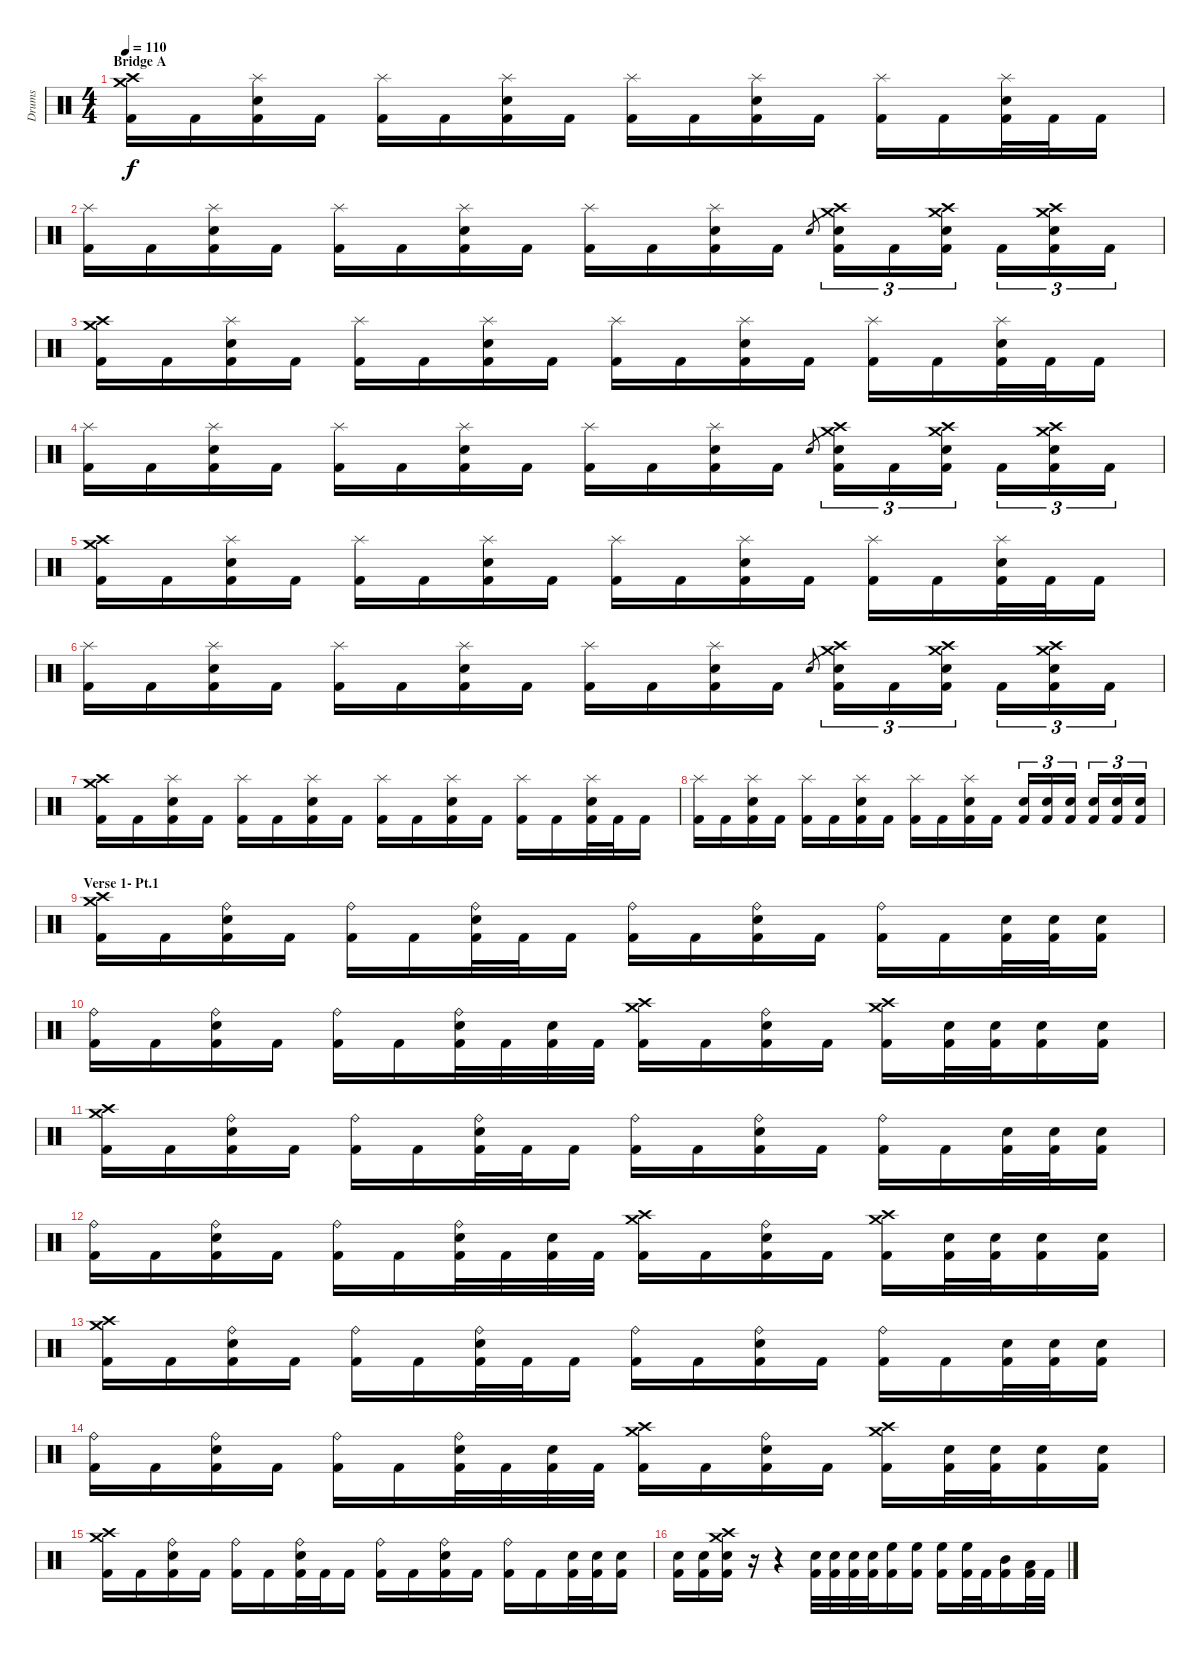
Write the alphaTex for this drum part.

\track ("Drums" "Drums") {instrument percussion}
\staff {score}
\articulation defaults
\ts (4 4)
\section ("" "Bridge A")
\tempo 110
\clef neutral
\ks c
("Crash medium (hit)" "Crash high (hit)" "Kick (hit) 2").16{dy f} "Kick (hit) 2".16 ("Splash (hit)" "Electric Snare (hit)" "Kick (hit) 2").16 "Kick (hit) 2".16 ("Splash (hit)" "Kick (hit) 2").16 "Kick (hit) 2".16 ("Splash (hit)" "Electric Snare (hit)" "Kick (hit) 2").16 "Kick (hit) 2".16 ("Splash (hit)" "Kick (hit) 2").16 "Kick (hit) 2".16 ("Splash (hit)" "Electric Snare (hit)" "Kick (hit) 2").16 "Kick (hit) 2".16 ("Splash (hit)" "Kick (hit) 2").16 "Kick (hit) 2".16 ("Splash (hit)" "Electric Snare (hit)" "Kick (hit) 2").32 "Kick (hit) 2".32 "Kick (hit) 2".16 |
("Splash (hit)" "Kick (hit) 2").16 "Kick (hit) 2".16 ("Splash (hit)" "Electric Snare (hit)" "Kick (hit) 2").16 "Kick (hit) 2".16 ("Splash (hit)" "Kick (hit) 2").16 "Kick (hit) 2".16 ("Splash (hit)" "Electric Snare (hit)" "Kick (hit) 2").16 "Kick (hit) 2".16 ("Splash (hit)" "Kick (hit) 2").16 "Kick (hit) 2".16 ("Splash (hit)" "Electric Snare (hit)" "Kick (hit) 2").16 "Kick (hit) 2".16 "Electric Snare (hit)".8{gr} ("Crash medium (hit)" "Crash high (hit)" "Electric Snare (hit)" "Kick (hit) 2").16{tu (3 2)} "Kick (hit) 2".16{tu (3 2)} ("Crash medium (hit)" "Crash high (hit)" "Electric Snare (hit)" "Kick (hit) 2").16{tu (3 2)} "Kick (hit) 2".16{tu (3 2)} ("Crash medium (hit)" "Crash high (hit)" "Electric Snare (hit)" "Kick (hit) 2").16{tu (3 2)} "Kick (hit) 2".16{tu (3 2)} |
("Crash medium (hit)" "Crash high (hit)" "Kick (hit) 2").16 "Kick (hit) 2".16 ("Splash (hit)" "Electric Snare (hit)" "Kick (hit) 2").16 "Kick (hit) 2".16 ("Splash (hit)" "Kick (hit) 2").16 "Kick (hit) 2".16 ("Splash (hit)" "Electric Snare (hit)" "Kick (hit) 2").16 "Kick (hit) 2".16 ("Splash (hit)" "Kick (hit) 2").16 "Kick (hit) 2".16 ("Splash (hit)" "Electric Snare (hit)" "Kick (hit) 2").16 "Kick (hit) 2".16 ("Splash (hit)" "Kick (hit) 2").16 "Kick (hit) 2".16 ("Splash (hit)" "Electric Snare (hit)" "Kick (hit) 2").32 "Kick (hit) 2".32 "Kick (hit) 2".16 |
("Splash (hit)" "Kick (hit) 2").16 "Kick (hit) 2".16 ("Splash (hit)" "Electric Snare (hit)" "Kick (hit) 2").16 "Kick (hit) 2".16 ("Splash (hit)" "Kick (hit) 2").16 "Kick (hit) 2".16 ("Splash (hit)" "Electric Snare (hit)" "Kick (hit) 2").16 "Kick (hit) 2".16 ("Splash (hit)" "Kick (hit) 2").16 "Kick (hit) 2".16 ("Splash (hit)" "Electric Snare (hit)" "Kick (hit) 2").16 "Kick (hit) 2".16 "Electric Snare (hit)".8{gr} ("Crash medium (hit)" "Crash high (hit)" "Electric Snare (hit)" "Kick (hit) 2").16{tu (3 2)} "Kick (hit) 2".16{tu (3 2)} ("Crash medium (hit)" "Crash high (hit)" "Electric Snare (hit)" "Kick (hit) 2").16{tu (3 2)} "Kick (hit) 2".16{tu (3 2)} ("Crash medium (hit)" "Crash high (hit)" "Electric Snare (hit)" "Kick (hit) 2").16{tu (3 2)} "Kick (hit) 2".16{tu (3 2)} |
("Crash medium (hit)" "Crash high (hit)" "Kick (hit) 2").16 "Kick (hit) 2".16 ("Splash (hit)" "Electric Snare (hit)" "Kick (hit) 2").16 "Kick (hit) 2".16 ("Splash (hit)" "Kick (hit) 2").16 "Kick (hit) 2".16 ("Splash (hit)" "Electric Snare (hit)" "Kick (hit) 2").16 "Kick (hit) 2".16 ("Splash (hit)" "Kick (hit) 2").16 "Kick (hit) 2".16 ("Splash (hit)" "Electric Snare (hit)" "Kick (hit) 2").16 "Kick (hit) 2".16 ("Splash (hit)" "Kick (hit) 2").16 "Kick (hit) 2".16 ("Splash (hit)" "Electric Snare (hit)" "Kick (hit) 2").32 "Kick (hit) 2".32 "Kick (hit) 2".16 |
("Splash (hit)" "Kick (hit) 2").16 "Kick (hit) 2".16 ("Splash (hit)" "Electric Snare (hit)" "Kick (hit) 2").16 "Kick (hit) 2".16 ("Splash (hit)" "Kick (hit) 2").16 "Kick (hit) 2".16 ("Splash (hit)" "Electric Snare (hit)" "Kick (hit) 2").16 "Kick (hit) 2".16 ("Splash (hit)" "Kick (hit) 2").16 "Kick (hit) 2".16 ("Splash (hit)" "Electric Snare (hit)" "Kick (hit) 2").16 "Kick (hit) 2".16 "Electric Snare (hit)".8{gr} ("Crash medium (hit)" "Crash high (hit)" "Electric Snare (hit)" "Kick (hit) 2").16{tu (3 2)} "Kick (hit) 2".16{tu (3 2)} ("Crash medium (hit)" "Crash high (hit)" "Electric Snare (hit)" "Kick (hit) 2").16{tu (3 2)} "Kick (hit) 2".16{tu (3 2)} ("Crash medium (hit)" "Crash high (hit)" "Electric Snare (hit)" "Kick (hit) 2").16{tu (3 2)} "Kick (hit) 2".16{tu (3 2)} |
("Crash medium (hit)" "Crash high (hit)" "Kick (hit) 2").16 "Kick (hit) 2".16 ("Splash (hit)" "Electric Snare (hit)" "Kick (hit) 2").16 "Kick (hit) 2".16 ("Splash (hit)" "Kick (hit) 2").16 "Kick (hit) 2".16 ("Splash (hit)" "Electric Snare (hit)" "Kick (hit) 2").16 "Kick (hit) 2".16 ("Splash (hit)" "Kick (hit) 2").16 "Kick (hit) 2".16 ("Splash (hit)" "Electric Snare (hit)" "Kick (hit) 2").16 "Kick (hit) 2".16 ("Splash (hit)" "Kick (hit) 2").16 "Kick (hit) 2".16 ("Splash (hit)" "Electric Snare (hit)" "Kick (hit) 2").32 "Kick (hit) 2".32 "Kick (hit) 2".16 |
("Splash (hit)" "Kick (hit) 2").16 "Kick (hit) 2".16 ("Splash (hit)" "Electric Snare (hit)" "Kick (hit) 2").16 "Kick (hit) 2".16 ("Splash (hit)" "Kick (hit) 2").16 "Kick (hit) 2".16 ("Splash (hit)" "Electric Snare (hit)" "Kick (hit) 2").16 "Kick (hit) 2".16 ("Splash (hit)" "Kick (hit) 2").16 "Kick (hit) 2".16 ("Splash (hit)" "Electric Snare (hit)" "Kick (hit) 2").16 "Kick (hit) 2".16 ("Electric Snare (hit)" "Kick (hit) 2").16{tu (3 2)} ("Electric Snare (hit)" "Kick (hit) 2").16{tu (3 2)} ("Electric Snare (hit)" "Kick (hit) 2").16{tu (3 2)} ("Electric Snare (hit)" "Kick (hit) 2").16{tu (3 2)} ("Electric Snare (hit)" "Kick (hit) 2").16{tu (3 2)} ("Electric Snare (hit)" "Kick (hit) 2").16{tu (3 2)} |
\section ("" "Verse 1- Pt.1")
("Crash medium (hit)" "Crash high (hit)" "Kick (hit) 2").16 "Kick (hit) 2".16 ("Ride (bell)" "Electric Snare (hit)" "Kick (hit) 2").16 "Kick (hit) 2".16 ("Ride (bell)" "Kick (hit) 2").16 "Kick (hit) 2".16 ("Ride (bell)" "Electric Snare (hit)" "Kick (hit) 2").32 "Kick (hit) 2".32 "Kick (hit) 2".16 ("Ride (bell)" "Kick (hit) 2").16 "Kick (hit) 2".16 ("Ride (bell)" "Electric Snare (hit)" "Kick (hit) 2").16 "Kick (hit) 2".16 ("Ride (bell)" "Kick (hit) 2").16 "Kick (hit) 2".16 ("Electric Snare (hit)" "Kick (hit) 2").32 ("Electric Snare (hit)" "Kick (hit) 2").32 ("Electric Snare (hit)" "Kick (hit) 2").16 |
("Ride (bell)" "Kick (hit) 2").16 "Kick (hit) 2".16 ("Ride (bell)" "Electric Snare (hit)" "Kick (hit) 2").16 "Kick (hit) 2".16 ("Ride (bell)" "Kick (hit) 2").16 "Kick (hit) 2".16 ("Ride (bell)" "Electric Snare (hit)" "Kick (hit) 2").32 "Kick (hit) 2".32 ("Electric Snare (hit)" "Kick (hit) 2").32 "Kick (hit) 2".32 ("Crash medium (hit)" "Crash high (hit)" "Kick (hit) 2").16 "Kick (hit) 2".16 ("Ride (bell)" "Electric Snare (hit)" "Kick (hit) 2").16 "Kick (hit) 2".16 ("Crash medium (hit)" "Crash high (hit)" "Kick (hit) 2").16 ("Electric Snare (hit)" "Kick (hit) 2").32 ("Electric Snare (hit)" "Kick (hit) 2").32 ("Electric Snare (hit)" "Kick (hit) 2").16 ("Electric Snare (hit)" "Kick (hit) 2").16 |
("Crash medium (hit)" "Crash high (hit)" "Kick (hit) 2").16 "Kick (hit) 2".16 ("Ride (bell)" "Electric Snare (hit)" "Kick (hit) 2").16 "Kick (hit) 2".16 ("Ride (bell)" "Kick (hit) 2").16 "Kick (hit) 2".16 ("Ride (bell)" "Electric Snare (hit)" "Kick (hit) 2").32 "Kick (hit) 2".32 "Kick (hit) 2".16 ("Ride (bell)" "Kick (hit) 2").16 "Kick (hit) 2".16 ("Ride (bell)" "Electric Snare (hit)" "Kick (hit) 2").16 "Kick (hit) 2".16 ("Ride (bell)" "Kick (hit) 2").16 "Kick (hit) 2".16 ("Electric Snare (hit)" "Kick (hit) 2").32 ("Electric Snare (hit)" "Kick (hit) 2").32 ("Electric Snare (hit)" "Kick (hit) 2").16 |
("Ride (bell)" "Kick (hit) 2").16 "Kick (hit) 2".16 ("Ride (bell)" "Electric Snare (hit)" "Kick (hit) 2").16 "Kick (hit) 2".16 ("Ride (bell)" "Kick (hit) 2").16 "Kick (hit) 2".16 ("Ride (bell)" "Electric Snare (hit)" "Kick (hit) 2").32 "Kick (hit) 2".32 ("Electric Snare (hit)" "Kick (hit) 2").32 "Kick (hit) 2".32 ("Crash medium (hit)" "Crash high (hit)" "Kick (hit) 2").16 "Kick (hit) 2".16 ("Ride (bell)" "Electric Snare (hit)" "Kick (hit) 2").16 "Kick (hit) 2".16 ("Crash medium (hit)" "Crash high (hit)" "Kick (hit) 2").16 ("Electric Snare (hit)" "Kick (hit) 2").32 ("Electric Snare (hit)" "Kick (hit) 2").32 ("Electric Snare (hit)" "Kick (hit) 2").16 ("Electric Snare (hit)" "Kick (hit) 2").16 |
("Crash medium (hit)" "Crash high (hit)" "Kick (hit) 2").16 "Kick (hit) 2".16 ("Ride (bell)" "Electric Snare (hit)" "Kick (hit) 2").16 "Kick (hit) 2".16 ("Ride (bell)" "Kick (hit) 2").16 "Kick (hit) 2".16 ("Ride (bell)" "Electric Snare (hit)" "Kick (hit) 2").32 "Kick (hit) 2".32 "Kick (hit) 2".16 ("Ride (bell)" "Kick (hit) 2").16 "Kick (hit) 2".16 ("Ride (bell)" "Electric Snare (hit)" "Kick (hit) 2").16 "Kick (hit) 2".16 ("Ride (bell)" "Kick (hit) 2").16 "Kick (hit) 2".16 ("Electric Snare (hit)" "Kick (hit) 2").32 ("Electric Snare (hit)" "Kick (hit) 2").32 ("Electric Snare (hit)" "Kick (hit) 2").16 |
("Ride (bell)" "Kick (hit) 2").16 "Kick (hit) 2".16 ("Ride (bell)" "Electric Snare (hit)" "Kick (hit) 2").16 "Kick (hit) 2".16 ("Ride (bell)" "Kick (hit) 2").16 "Kick (hit) 2".16 ("Ride (bell)" "Electric Snare (hit)" "Kick (hit) 2").32 "Kick (hit) 2".32 ("Electric Snare (hit)" "Kick (hit) 2").32 "Kick (hit) 2".32 ("Crash medium (hit)" "Crash high (hit)" "Kick (hit) 2").16 "Kick (hit) 2".16 ("Ride (bell)" "Electric Snare (hit)" "Kick (hit) 2").16 "Kick (hit) 2".16 ("Crash medium (hit)" "Crash high (hit)" "Kick (hit) 2").16 ("Electric Snare (hit)" "Kick (hit) 2").32 ("Electric Snare (hit)" "Kick (hit) 2").32 ("Electric Snare (hit)" "Kick (hit) 2").16 ("Electric Snare (hit)" "Kick (hit) 2").16 |
("Crash medium (hit)" "Crash high (hit)" "Kick (hit) 2").16 "Kick (hit) 2".16 ("Ride (bell)" "Electric Snare (hit)" "Kick (hit) 2").16 "Kick (hit) 2".16 ("Ride (bell)" "Kick (hit) 2").16 "Kick (hit) 2".16 ("Ride (bell)" "Electric Snare (hit)" "Kick (hit) 2").32 "Kick (hit) 2".32 "Kick (hit) 2".16 ("Ride (bell)" "Kick (hit) 2").16 "Kick (hit) 2".16 ("Ride (bell)" "Electric Snare (hit)" "Kick (hit) 2").16 "Kick (hit) 2".16 ("Ride (bell)" "Kick (hit) 2").16 "Kick (hit) 2".16 ("Electric Snare (hit)" "Kick (hit) 2").32 ("Electric Snare (hit)" "Kick (hit) 2").32 ("Electric Snare (hit)" "Kick (hit) 2").16 |
("Electric Snare (hit)" "Kick (hit) 2").16 ("Electric Snare (hit)" "Kick (hit) 2").16 ("Crash medium (hit)" "Crash high (hit)" "Electric Snare (hit)" "Kick (hit) 2").16 r.16 r.4 ("Electric Snare (hit)" "Kick (hit) 2").32 ("Electric Snare (hit)" "Kick (hit) 2").32 ("Electric Snare (hit)" "Kick (hit) 2").32 ("Electric Snare (hit)" "Kick (hit) 2").32 ("High Floor Tom (hit)" "Kick (hit) 2").16 ("High Floor Tom (hit)" "Kick (hit) 2").16 ("High Floor Tom (hit)" "Kick (hit) 2").16 ("High Floor Tom (hit)" "Kick (hit) 2").32 "Kick (hit) 2".32 ("Mid Tom (hit)" "Kick (hit) 2").16 ("Low Tom (hit)" "Kick (hit) 2").32 "Kick (hit) 2".32
